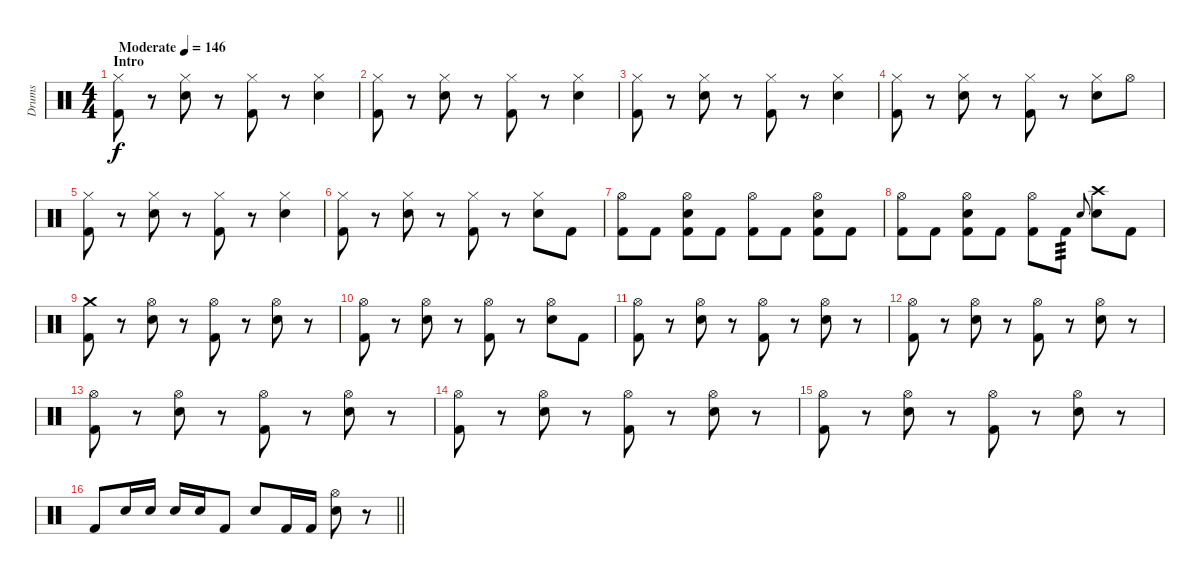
\track ("Drums" "Drums") {instrument percussion}
\staff {score}
\articulation defaults
\ts (4 4)
\section ("" "Intro")
\tempo (146 "Moderate")
\clef neutral
\ks c
("Hi-Hat (closed)" "Kick (hit) 2").8{dy f volume 2} r.8{volume 7} ("Hi-Hat (closed)" "Electric Snare (hit)").8 r.8 ("Hi-Hat (closed)" "Kick (hit) 2").8 r.8 ("Hi-Hat (closed)" "Electric Snare (hit)").4 |
("Hi-Hat (closed)" "Kick (hit) 2").8 r.8 ("Hi-Hat (closed)" "Electric Snare (hit)").8 r.8 ("Hi-Hat (closed)" "Kick (hit) 2").8 r.8 ("Hi-Hat (closed)" "Electric Snare (hit)").4 |
("Hi-Hat (closed)" "Kick (hit) 2").8 r.8 ("Hi-Hat (closed)" "Electric Snare (hit)").8 r.8 ("Hi-Hat (closed)" "Kick (hit) 2").8 r.8 ("Hi-Hat (closed)" "Electric Snare (hit)").4 |
("Hi-Hat (closed)" "Kick (hit) 2").8 r.8 ("Hi-Hat (closed)" "Electric Snare (hit)").8 r.8 ("Hi-Hat (closed)" "Kick (hit) 2").8 r.8 ("Hi-Hat (closed)" "Electric Snare (hit)").8{volume 7} "Hi-Hat (open)".8{volume 13} |
("Hi-Hat (closed)" "Kick (hit) 2").8 r.8 ("Hi-Hat (closed)" "Electric Snare (hit)").8 r.8 ("Hi-Hat (closed)" "Kick (hit) 2").8 r.8 ("Hi-Hat (closed)" "Electric Snare (hit)").4 |
("Hi-Hat (closed)" "Kick (hit) 2").8 r.8 ("Hi-Hat (closed)" "Electric Snare (hit)").8 r.8 ("Hi-Hat (closed)" "Kick (hit) 2").8 r.8 ("Hi-Hat (closed)" "Electric Snare (hit)").8 "Kick (hit) 2".8 |
("Hi-Hat (open)" "Kick (hit) 2").8{volume 6} "Kick (hit) 2".8{volume 13} ("Hi-Hat (open)" "Electric Snare (hit)" "Kick (hit) 2").8 "Kick (hit) 2".8 ("Hi-Hat (open)" "Kick (hit) 2").8 "Kick (hit) 2".8 ("Hi-Hat (open)" "Electric Snare (hit)" "Kick (hit) 2").8 "Kick (hit) 2".8 |
("Hi-Hat (open)" "Kick (hit) 2").8 "Kick (hit) 2".8 ("Hi-Hat (open)" "Electric Snare (hit)" "Kick (hit) 2").8 "Kick (hit) 2".8 ("Hi-Hat (open)" "Kick (hit) 2").8 "Kick (hit) 2".8{tp 3} "Electric Snare (hit)".8{gr onbeat} ("Crash high (hit)" "Electric Snare (hit)").8 "Kick (hit) 2".8 |
("Crash medium (hit)" "Kick (hit) 2").8 r.8 ("Hi-Hat (open)" "Electric Snare (hit)").8 r.8 ("Hi-Hat (open)" "Kick (hit) 2").8 r.8 ("Hi-Hat (open)" "Electric Snare (hit)").8 r.8 |
("Hi-Hat (open)" "Kick (hit) 2").8 r.8 ("Hi-Hat (open)" "Electric Snare (hit)").8 r.8 ("Hi-Hat (open)" "Kick (hit) 2").8 r.8 ("Hi-Hat (open)" "Electric Snare (hit)").8 "Kick (hit) 2".8 |
("Hi-Hat (open)" "Kick (hit) 2").8 r.8 ("Hi-Hat (open)" "Electric Snare (hit)").8 r.8 ("Hi-Hat (open)" "Kick (hit) 2").8 r.8 ("Hi-Hat (open)" "Electric Snare (hit)").8 r.8 |
("Hi-Hat (open)" "Kick (hit) 2").8 r.8 ("Hi-Hat (open)" "Electric Snare (hit)").8 r.8 ("Hi-Hat (open)" "Kick (hit) 2").8 r.8 ("Hi-Hat (open)" "Electric Snare (hit)").8 r.8 |
("Hi-Hat (open)" "Kick (hit) 2").8 r.8 ("Hi-Hat (open)" "Electric Snare (hit)").8 r.8 ("Hi-Hat (open)" "Kick (hit) 2").8 r.8 ("Hi-Hat (open)" "Electric Snare (hit)").8 r.8 |
("Hi-Hat (open)" "Kick (hit) 2").8 r.8 ("Hi-Hat (open)" "Electric Snare (hit)").8 r.8 ("Hi-Hat (open)" "Kick (hit) 2").8 r.8 ("Hi-Hat (open)" "Electric Snare (hit)").8 r.8 |
("Hi-Hat (open)" "Kick (hit) 2").8 r.8 ("Hi-Hat (open)" "Electric Snare (hit)").8 r.8 ("Hi-Hat (open)" "Kick (hit) 2").8 r.8 ("Hi-Hat (open)" "Electric Snare (hit)").8 r.8 |
\barLineRight lightlight "Kick (hit) 2".8 "Electric Snare (hit)".16 "Electric Snare (hit)".16 "Electric Snare (hit)".16 "Electric Snare (hit)".16 "Kick (hit) 2".8 "Electric Snare (hit)".8 "Kick (hit) 2".16 "Kick (hit) 2".16
("Hi-Hat (open)" "Electric Snare (hit)").8 r.8
